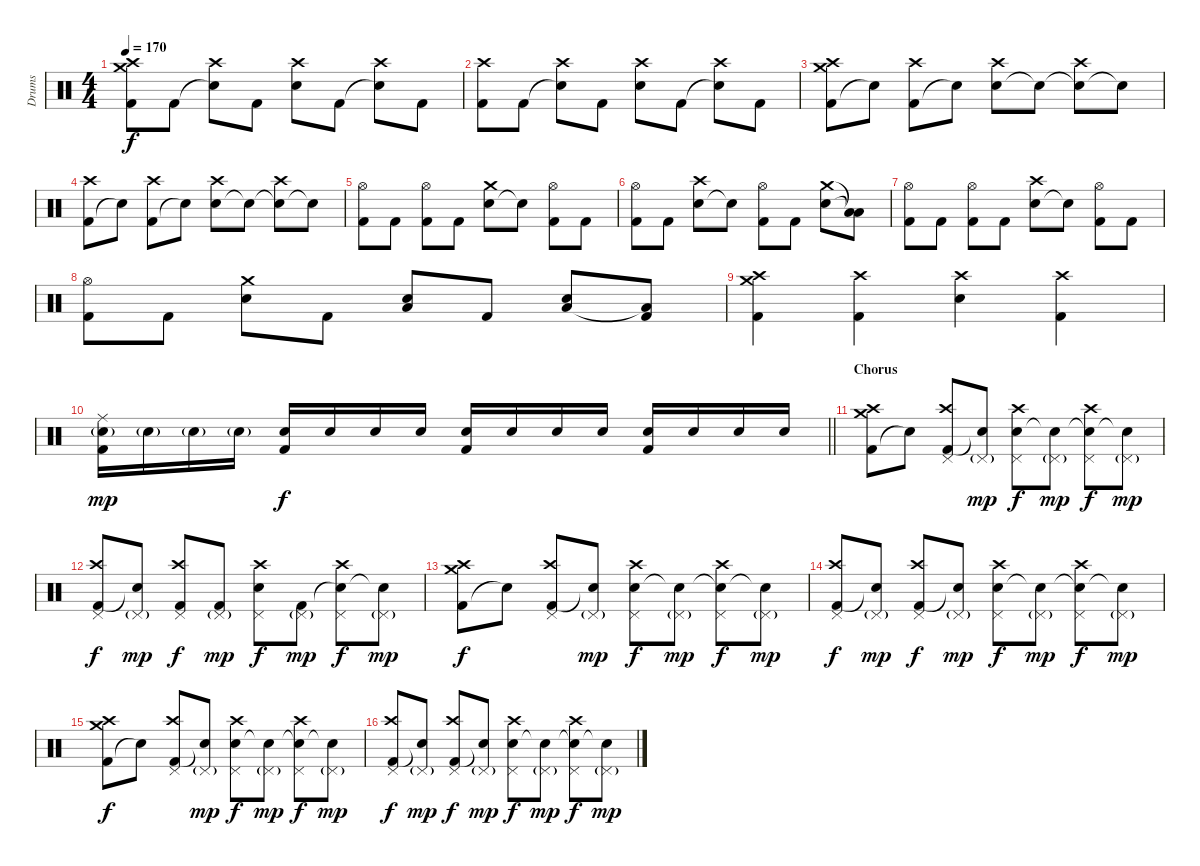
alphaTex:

\track ("Drums" "Drums") {instrument percussion}
\staff {score}
\articulation defaults
\ts (4 4)
\tempo 170
\clef neutral
\ks c
("Kick (hit) 2" "Crash medium (hit)" "Crash high (hit)").8{dy f} "Kick (hit) 2".8 ("Snare (hit)"{t} "Crash high (hit)").8 "Kick (hit) 2".8 ("Electric Snare (hit)" "Crash high (hit)").8 "Kick (hit) 2".8 ("Snare (hit)"{t} "Crash high (hit)").8 "Kick (hit) 2".8 |
("Kick (hit) 2" "Crash high (hit)").8 "Kick (hit) 2".8 ("Snare (hit)"{t} "Crash high (hit)").8 "Kick (hit) 2".8 ("Electric Snare (hit)" "Crash high (hit)").8 "Kick (hit) 2".8 ("Snare (hit)"{t} "Crash high (hit)").8 "Kick (hit) 2".8 |
("Kick (hit) 2" "Crash medium (hit)" "Crash high (hit)").8 "Snare (hit)"{t}.8 ("Kick (hit) 2" "Crash high (hit)").8 "Snare (hit)"{t}.8 ("Electric Snare (hit)" "Crash high (hit)").8 "Snare (hit)"{t}.8 ("Snare (hit)"{t} "Crash high (hit)").8 "Snare (hit)"{t}.8 |
("Kick (hit) 2" "Crash high (hit)").8 "Snare (hit)"{t}.8 ("Kick (hit) 2" "Crash high (hit)").8 "Snare (hit)"{t}.8 ("Electric Snare (hit)" "Crash high (hit)").8 "Snare (hit)"{t}.8 ("Snare (hit)"{t} "Crash high (hit)").8 "Snare (hit)"{t}.8 |
("Kick (hit) 2" "Hi-Hat (open)").8 "Kick (hit) 2".8 ("Kick (hit) 2" "Hi-Hat (open)").8 "Kick (hit) 2".8 ("Electric Snare (hit)" "Crash medium (hit)").8 "Snare (hit)"{t}.8 ("Kick (hit) 2" "Hi-Hat (open)").8 "Kick (hit) 2".8 |
("Kick (hit) 2" "Hi-Hat (open)").8 "Kick (hit) 2".8 ("Electric Snare (hit)" "Crash high (hit)").8 "Snare (hit)"{t}.8 ("Kick (hit) 2" "Hi-Hat (open)").8 "Kick (hit) 2".8 ("Electric Snare (hit)" "Crash medium (hit)").8 ("Low Tom (hit)"{t} "Low Floor Tom (hit)"{t}).8 |
("Kick (hit) 2" "Hi-Hat (open)").8 "Kick (hit) 2".8 ("Kick (hit) 2" "Hi-Hat (open)").8 "Kick (hit) 2".8 ("Electric Snare (hit)" "Crash high (hit)").8 "Snare (hit)"{t}.8 ("Kick (hit) 2" "Hi-Hat (open)").8 "Kick (hit) 2".8 |
("Kick (hit) 2" "Hi-Hat (open)").8 "Kick (hit) 2".8 ("Electric Snare (hit)" "Crash medium (hit)").8 "Kick (hit) 2".8 ("Electric Snare (hit)" "Low Floor Tom (hit)").8 "Kick (hit) 2".8 ("Electric Snare (hit)" "Low Floor Tom (hit)").8 ("Kick (hit) 2" "Low Floor Tom (hit)"{t}).8 |
("Kick (hit) 2" "Crash medium (hit)" "Crash high (hit)").4 ("Kick (hit) 2" "Crash high (hit)").4 ("Electric Snare (hit)" "Crash high (hit)").4 ("Kick (hit) 2" "Crash high (hit)").4 |
\barLineRight lightlight
("Electric Snare (hit)"{g} "Kick (hit) 2" "Ride (middle)").16{dy mp} "Electric Snare (hit)"{g}.16 "Electric Snare (hit)"{g}.16 "Electric Snare (hit)"{g}.16 ("Electric Snare (hit)" "Kick (hit) 2").16{dy f} "Electric Snare (hit)".16 "Electric Snare (hit)".16 "Electric Snare (hit)".16 ("Electric Snare (hit)" "Kick (hit) 2").16 "Electric Snare (hit)".16 "Electric Snare (hit)".16 "Electric Snare (hit)".16 ("Electric Snare (hit)" "Kick (hit) 2").16 "Electric Snare (hit)".16 "Electric Snare (hit)".16 "Electric Snare (hit)".16 |
\section ("" "Chorus")
("Kick (hit) 2" "Crash medium (hit)" "Crash high (hit)").8 "Snare (hit)"{t}.8 ("Kick (hit) 2" "Pedal Hi-Hat (hit)" "Crash high (hit)").8 ("Snare (hit)"{t} "Pedal Hi-Hat (hit)"{g}).8{dy mp} ("Electric Snare (hit)" "Pedal Hi-Hat (hit)" "Crash high (hit)").8{dy f} ("Snare (hit)"{t} "Pedal Hi-Hat (hit)"{g}).8{dy mp} ("Snare (hit)"{t} "Pedal Hi-Hat (hit)" "Crash high (hit)").8{dy f} ("Snare (hit)"{t} "Pedal Hi-Hat (hit)"{g}).8{dy mp} |
("Kick (hit) 2" "Pedal Hi-Hat (hit)" "Crash high (hit)").8{dy f} ("Snare (hit)"{t} "Pedal Hi-Hat (hit)"{g}).8{dy mp} ("Kick (hit) 2" "Pedal Hi-Hat (hit)" "Crash high (hit)").8{dy f} ("Kick (hit) 2" "Pedal Hi-Hat (hit)"{g}).8{dy mp} ("Electric Snare (hit)" "Pedal Hi-Hat (hit)" "Crash high (hit)").8{dy f} ("Kick (hit) 2" "Pedal Hi-Hat (hit)"{g}).8{dy mp} ("Snare (hit)"{t} "Pedal Hi-Hat (hit)" "Crash high (hit)").8{dy f} ("Snare (hit)"{t} "Pedal Hi-Hat (hit)"{g}).8{dy mp} |
("Kick (hit) 2" "Crash medium (hit)" "Crash high (hit)").8{dy f} "Snare (hit)"{t}.8 ("Kick (hit) 2" "Pedal Hi-Hat (hit)" "Crash high (hit)").8 ("Snare (hit)"{t} "Pedal Hi-Hat (hit)"{g}).8{dy mp} ("Electric Snare (hit)" "Pedal Hi-Hat (hit)" "Crash high (hit)").8{dy f} ("Snare (hit)"{t} "Pedal Hi-Hat (hit)"{g}).8{dy mp} ("Snare (hit)"{t} "Pedal Hi-Hat (hit)" "Crash high (hit)").8{dy f} ("Snare (hit)"{t} "Pedal Hi-Hat (hit)"{g}).8{dy mp} |
("Kick (hit) 2" "Pedal Hi-Hat (hit)" "Crash high (hit)").8{dy f} ("Snare (hit)"{t} "Pedal Hi-Hat (hit)"{g}).8{dy mp} ("Kick (hit) 2" "Pedal Hi-Hat (hit)" "Crash high (hit)").8{dy f} ("Snare (hit)"{t} "Pedal Hi-Hat (hit)"{g}).8{dy mp} ("Electric Snare (hit)" "Pedal Hi-Hat (hit)" "Crash high (hit)").8{dy f} ("Snare (hit)"{t} "Pedal Hi-Hat (hit)"{g}).8{dy mp} ("Snare (hit)"{t} "Pedal Hi-Hat (hit)" "Crash high (hit)").8{dy f} ("Snare (hit)"{t} "Pedal Hi-Hat (hit)"{g}).8{dy mp} |
("Kick (hit) 2" "Crash medium (hit)" "Crash high (hit)").8{dy f} "Snare (hit)"{t}.8 ("Kick (hit) 2" "Pedal Hi-Hat (hit)" "Crash high (hit)").8 ("Snare (hit)"{t} "Pedal Hi-Hat (hit)"{g}).8{dy mp} ("Electric Snare (hit)" "Pedal Hi-Hat (hit)" "Crash high (hit)").8{dy f} ("Snare (hit)"{t} "Pedal Hi-Hat (hit)"{g}).8{dy mp} ("Snare (hit)"{t} "Pedal Hi-Hat (hit)" "Crash high (hit)").8{dy f} ("Snare (hit)"{t} "Pedal Hi-Hat (hit)"{g}).8{dy mp} |
("Kick (hit) 2" "Pedal Hi-Hat (hit)" "Crash high (hit)").8{dy f} ("Snare (hit)"{t} "Pedal Hi-Hat (hit)"{g}).8{dy mp} ("Kick (hit) 2" "Pedal Hi-Hat (hit)" "Crash high (hit)").8{dy f} ("Snare (hit)"{t} "Pedal Hi-Hat (hit)"{g}).8{dy mp} ("Electric Snare (hit)" "Pedal Hi-Hat (hit)" "Crash high (hit)").8{dy f} ("Snare (hit)"{t} "Pedal Hi-Hat (hit)"{g}).8{dy mp} ("Snare (hit)"{t} "Pedal Hi-Hat (hit)" "Crash high (hit)").8{dy f} ("Snare (hit)"{t} "Pedal Hi-Hat (hit)"{g}).8{dy mp}
